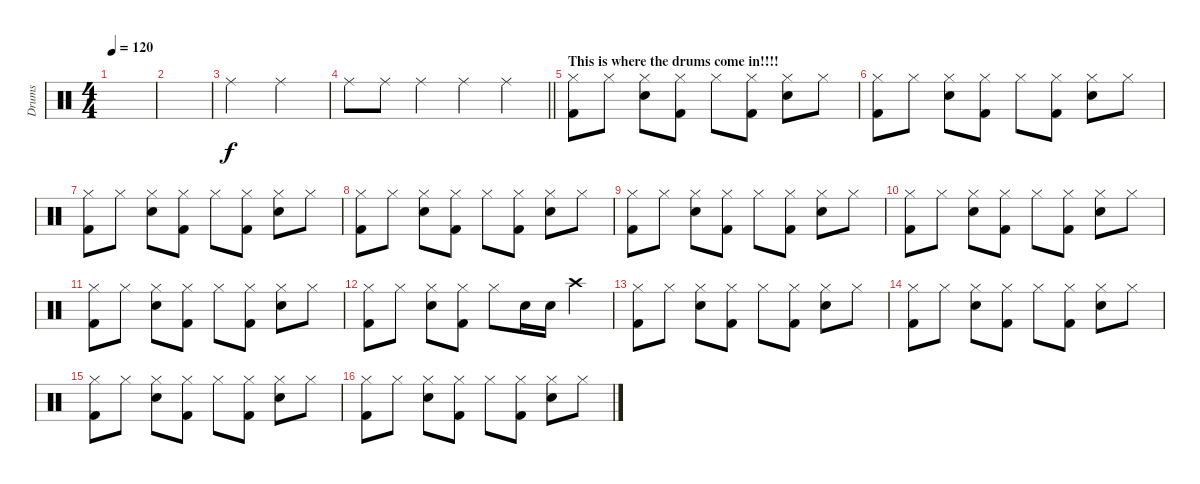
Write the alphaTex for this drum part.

\track ("Drums" "Drums") {instrument percussion}
\staff {score}
\articulation defaults
\ts (4 4)
\tempo 120
\clef neutral
\ks c
|
|
"Ride (middle)".2 "Ride (middle)".2 |
\barLineRight lightlight "Ride (middle)".8 "Ride (middle)".8 "Ride (middle)".4 "Ride (middle)".4 "Ride (middle)".4
|
\section ("" "This is where the drums come in!!!!")
("Hi-Hat (closed)" "Kick (hit) 2").8 "Hi-Hat (closed)".8 ("Hi-Hat (closed)" "Electric Snare (hit)").8 ("Hi-Hat (closed)" "Kick (hit) 2").8 "Hi-Hat (closed)".8 ("Hi-Hat (closed)" "Kick (hit) 2").8 ("Hi-Hat (closed)" "Electric Snare (hit)").8 "Hi-Hat (closed)".8 |
("Hi-Hat (closed)" "Kick (hit) 2").8 "Hi-Hat (closed)".8 ("Hi-Hat (closed)" "Electric Snare (hit)").8 ("Hi-Hat (closed)" "Kick (hit) 2").8 "Hi-Hat (closed)".8 ("Hi-Hat (closed)" "Kick (hit) 2").8 ("Hi-Hat (closed)" "Electric Snare (hit)").8 "Hi-Hat (closed)".8 |
("Hi-Hat (closed)" "Kick (hit) 2").8 "Hi-Hat (closed)".8 ("Hi-Hat (closed)" "Electric Snare (hit)").8 ("Hi-Hat (closed)" "Kick (hit) 2").8 "Hi-Hat (closed)".8 ("Hi-Hat (closed)" "Kick (hit) 2").8 ("Hi-Hat (closed)" "Electric Snare (hit)").8 "Hi-Hat (closed)".8 |
("Hi-Hat (closed)" "Kick (hit) 2").8 "Hi-Hat (closed)".8 ("Hi-Hat (closed)" "Electric Snare (hit)").8 ("Hi-Hat (closed)" "Kick (hit) 2").8 "Hi-Hat (closed)".8 ("Hi-Hat (closed)" "Kick (hit) 2").8 ("Hi-Hat (closed)" "Electric Snare (hit)").8 "Hi-Hat (closed)".8 |
("Hi-Hat (closed)" "Kick (hit) 2").8 "Hi-Hat (closed)".8 ("Hi-Hat (closed)" "Electric Snare (hit)").8 ("Hi-Hat (closed)" "Kick (hit) 2").8 "Hi-Hat (closed)".8 ("Hi-Hat (closed)" "Kick (hit) 2").8 ("Hi-Hat (closed)" "Electric Snare (hit)").8 "Hi-Hat (closed)".8 |
("Hi-Hat (closed)" "Kick (hit) 2").8 "Hi-Hat (closed)".8 ("Hi-Hat (closed)" "Electric Snare (hit)").8 ("Hi-Hat (closed)" "Kick (hit) 2").8 "Hi-Hat (closed)".8 ("Hi-Hat (closed)" "Kick (hit) 2").8 ("Hi-Hat (closed)" "Electric Snare (hit)").8 "Hi-Hat (closed)".8 |
("Hi-Hat (closed)" "Kick (hit) 2").8 "Hi-Hat (closed)".8 ("Hi-Hat (closed)" "Electric Snare (hit)").8 ("Hi-Hat (closed)" "Kick (hit) 2").8 "Hi-Hat (closed)".8 ("Hi-Hat (closed)" "Kick (hit) 2").8 ("Hi-Hat (closed)" "Electric Snare (hit)").8 "Hi-Hat (closed)".8 |
("Hi-Hat (closed)" "Kick (hit) 2").8 "Hi-Hat (closed)".8 ("Hi-Hat (closed)" "Electric Snare (hit)").8 ("Hi-Hat (closed)" "Kick (hit) 2").8 "Hi-Hat (closed)".8 "Electric Snare (hit)".16 "Electric Snare (hit)".16 "Crash high (hit)".4 |
("Hi-Hat (closed)" "Kick (hit) 2").8 "Hi-Hat (closed)".8 ("Hi-Hat (closed)" "Electric Snare (hit)").8 ("Hi-Hat (closed)" "Kick (hit) 2").8 "Hi-Hat (closed)".8 ("Hi-Hat (closed)" "Kick (hit) 2").8 ("Hi-Hat (closed)" "Electric Snare (hit)").8 "Hi-Hat (closed)".8 |
("Hi-Hat (closed)" "Kick (hit) 2").8 "Hi-Hat (closed)".8 ("Hi-Hat (closed)" "Electric Snare (hit)").8 ("Hi-Hat (closed)" "Kick (hit) 2").8 "Hi-Hat (closed)".8 ("Hi-Hat (closed)" "Kick (hit) 2").8 ("Hi-Hat (closed)" "Electric Snare (hit)").8 "Hi-Hat (closed)".8 |
("Hi-Hat (closed)" "Kick (hit) 2").8 "Hi-Hat (closed)".8 ("Hi-Hat (closed)" "Electric Snare (hit)").8 ("Hi-Hat (closed)" "Kick (hit) 2").8 "Hi-Hat (closed)".8 ("Hi-Hat (closed)" "Kick (hit) 2").8 ("Hi-Hat (closed)" "Electric Snare (hit)").8 "Hi-Hat (closed)".8 |
("Hi-Hat (closed)" "Kick (hit) 2").8 "Hi-Hat (closed)".8 ("Hi-Hat (closed)" "Electric Snare (hit)").8 ("Hi-Hat (closed)" "Kick (hit) 2").8 "Hi-Hat (closed)".8 ("Hi-Hat (closed)" "Kick (hit) 2").8 ("Hi-Hat (closed)" "Electric Snare (hit)").8 "Hi-Hat (closed)".8
